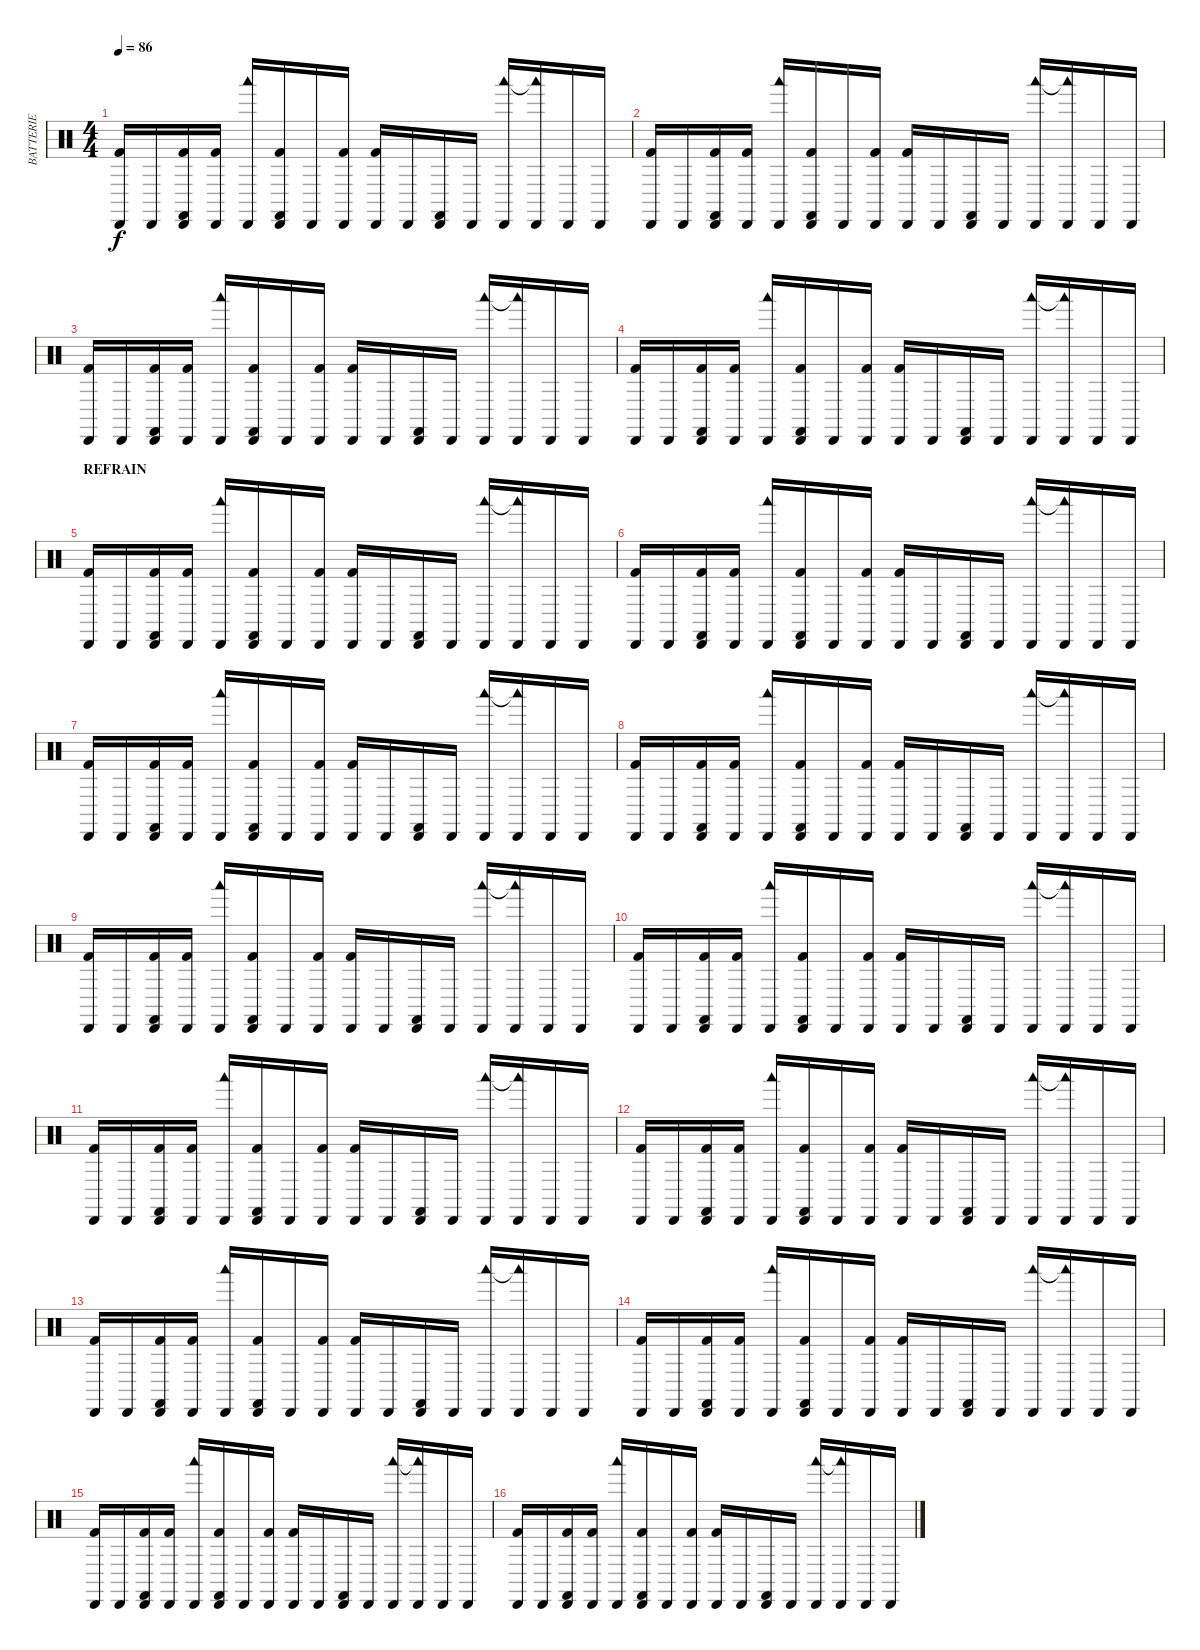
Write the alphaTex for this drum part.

\track ("BATTERIE" "BATTERIE") {instrument percussion}
\staff {score}
\articulation defaults
\ts (4 4)
\tempo 86
\clef neutral
\ks c
("Cabasa (hit)" "Kick (hit) 2").16{dy f} "Cabasa (hit)".16 ("Cabasa (hit)" "Castanets (hit)" "Kick (hit) 2").16 ("Cabasa (hit)" "Kick (hit) 2").16 ("Cabasa (hit)" "Woodblock low (hit)").16 ("Cabasa (hit)" "Castanets (hit)" "Kick (hit) 2").16 "Cabasa (hit)".16 ("Cabasa (hit)" "Kick (hit) 2").16 ("Cabasa (hit)" "Kick (hit) 2").16 "Cabasa (hit)".16 ("Cabasa (hit)" "Castanets (hit)").16 "Cabasa (hit)".16 ("Cabasa (hit)" "Woodblock low (hit)").16 ("Cabasa (hit)" "Woodblock low (hit)"{t}).16 "Cabasa (hit)".16 "Cabasa (hit)".16 |
("Cabasa (hit)" "Kick (hit) 2").16 "Cabasa (hit)".16 ("Cabasa (hit)" "Castanets (hit)" "Kick (hit) 2").16 ("Cabasa (hit)" "Kick (hit) 2").16 ("Cabasa (hit)" "Woodblock low (hit)").16 ("Cabasa (hit)" "Castanets (hit)" "Kick (hit) 2").16 "Cabasa (hit)".16 ("Cabasa (hit)" "Kick (hit) 2").16 ("Cabasa (hit)" "Kick (hit) 2").16 "Cabasa (hit)".16 ("Cabasa (hit)" "Castanets (hit)").16 "Cabasa (hit)".16 ("Cabasa (hit)" "Woodblock low (hit)").16 ("Cabasa (hit)" "Woodblock low (hit)"{t}).16 "Cabasa (hit)".16 "Cabasa (hit)".16 |
("Cabasa (hit)" "Kick (hit) 2").16 "Cabasa (hit)".16 ("Cabasa (hit)" "Castanets (hit)" "Kick (hit) 2").16 ("Cabasa (hit)" "Kick (hit) 2").16 ("Cabasa (hit)" "Woodblock low (hit)").16 ("Cabasa (hit)" "Castanets (hit)" "Kick (hit) 2").16 "Cabasa (hit)".16 ("Cabasa (hit)" "Kick (hit) 2").16 ("Cabasa (hit)" "Kick (hit) 2").16 "Cabasa (hit)".16 ("Cabasa (hit)" "Castanets (hit)").16 "Cabasa (hit)".16 ("Cabasa (hit)" "Woodblock low (hit)").16 ("Cabasa (hit)" "Woodblock low (hit)"{t}).16 "Cabasa (hit)".16 "Cabasa (hit)".16 |
("Cabasa (hit)" "Kick (hit) 2").16 "Cabasa (hit)".16 ("Cabasa (hit)" "Castanets (hit)" "Kick (hit) 2").16 ("Cabasa (hit)" "Kick (hit) 2").16 ("Cabasa (hit)" "Woodblock low (hit)").16 ("Cabasa (hit)" "Castanets (hit)" "Kick (hit) 2").16 "Cabasa (hit)".16 ("Cabasa (hit)" "Kick (hit) 2").16 ("Cabasa (hit)" "Kick (hit) 2").16 "Cabasa (hit)".16 ("Cabasa (hit)" "Castanets (hit)").16 "Cabasa (hit)".16 ("Cabasa (hit)" "Woodblock low (hit)").16 ("Cabasa (hit)" "Woodblock low (hit)"{t}).16 "Cabasa (hit)".16 "Cabasa (hit)".16 |
\section ("" "REFRAIN")
("Cabasa (hit)" "Kick (hit) 2").16 "Cabasa (hit)".16 ("Cabasa (hit)" "Castanets (hit)" "Kick (hit) 2").16 ("Cabasa (hit)" "Kick (hit) 2").16 ("Cabasa (hit)" "Woodblock low (hit)").16 ("Cabasa (hit)" "Castanets (hit)" "Kick (hit) 2").16 "Cabasa (hit)".16 ("Cabasa (hit)" "Kick (hit) 2").16 ("Cabasa (hit)" "Kick (hit) 2").16 "Cabasa (hit)".16 ("Cabasa (hit)" "Castanets (hit)").16 "Cabasa (hit)".16 ("Cabasa (hit)" "Woodblock low (hit)").16 ("Cabasa (hit)" "Woodblock low (hit)"{t}).16 "Cabasa (hit)".16 "Cabasa (hit)".16 |
("Cabasa (hit)" "Kick (hit) 2").16 "Cabasa (hit)".16 ("Cabasa (hit)" "Castanets (hit)" "Kick (hit) 2").16 ("Cabasa (hit)" "Kick (hit) 2").16 ("Cabasa (hit)" "Woodblock low (hit)").16 ("Cabasa (hit)" "Castanets (hit)" "Kick (hit) 2").16 "Cabasa (hit)".16 ("Cabasa (hit)" "Kick (hit) 2").16 ("Cabasa (hit)" "Kick (hit) 2").16 "Cabasa (hit)".16 ("Cabasa (hit)" "Castanets (hit)").16 "Cabasa (hit)".16 ("Cabasa (hit)" "Woodblock low (hit)").16 ("Cabasa (hit)" "Woodblock low (hit)"{t}).16 "Cabasa (hit)".16 "Cabasa (hit)".16 |
("Cabasa (hit)" "Kick (hit) 2").16 "Cabasa (hit)".16 ("Cabasa (hit)" "Castanets (hit)" "Kick (hit) 2").16 ("Cabasa (hit)" "Kick (hit) 2").16 ("Cabasa (hit)" "Woodblock low (hit)").16 ("Cabasa (hit)" "Castanets (hit)" "Kick (hit) 2").16 "Cabasa (hit)".16 ("Cabasa (hit)" "Kick (hit) 2").16 ("Cabasa (hit)" "Kick (hit) 2").16 "Cabasa (hit)".16 ("Cabasa (hit)" "Castanets (hit)").16 "Cabasa (hit)".16 ("Cabasa (hit)" "Woodblock low (hit)").16 ("Cabasa (hit)" "Woodblock low (hit)"{t}).16 "Cabasa (hit)".16 "Cabasa (hit)".16 |
("Cabasa (hit)" "Kick (hit) 2").16 "Cabasa (hit)".16 ("Cabasa (hit)" "Castanets (hit)" "Kick (hit) 2").16 ("Cabasa (hit)" "Kick (hit) 2").16 ("Cabasa (hit)" "Woodblock low (hit)").16 ("Cabasa (hit)" "Castanets (hit)" "Kick (hit) 2").16 "Cabasa (hit)".16 ("Cabasa (hit)" "Kick (hit) 2").16 ("Cabasa (hit)" "Kick (hit) 2").16 "Cabasa (hit)".16 ("Cabasa (hit)" "Castanets (hit)").16 "Cabasa (hit)".16 ("Cabasa (hit)" "Woodblock low (hit)").16 ("Cabasa (hit)" "Woodblock low (hit)"{t}).16 "Cabasa (hit)".16 "Cabasa (hit)".16 |
("Cabasa (hit)" "Kick (hit) 2").16 "Cabasa (hit)".16 ("Cabasa (hit)" "Castanets (hit)" "Kick (hit) 2").16 ("Cabasa (hit)" "Kick (hit) 2").16 ("Cabasa (hit)" "Woodblock low (hit)").16 ("Cabasa (hit)" "Castanets (hit)" "Kick (hit) 2").16 "Cabasa (hit)".16 ("Cabasa (hit)" "Kick (hit) 2").16 ("Cabasa (hit)" "Kick (hit) 2").16 "Cabasa (hit)".16 ("Cabasa (hit)" "Castanets (hit)").16 "Cabasa (hit)".16 ("Cabasa (hit)" "Woodblock low (hit)").16 ("Cabasa (hit)" "Woodblock low (hit)"{t}).16 "Cabasa (hit)".16 "Cabasa (hit)".16 |
("Cabasa (hit)" "Kick (hit) 2").16 "Cabasa (hit)".16 ("Cabasa (hit)" "Castanets (hit)" "Kick (hit) 2").16 ("Cabasa (hit)" "Kick (hit) 2").16 ("Cabasa (hit)" "Woodblock low (hit)").16 ("Cabasa (hit)" "Castanets (hit)" "Kick (hit) 2").16 "Cabasa (hit)".16 ("Cabasa (hit)" "Kick (hit) 2").16 ("Cabasa (hit)" "Kick (hit) 2").16 "Cabasa (hit)".16 ("Cabasa (hit)" "Castanets (hit)").16 "Cabasa (hit)".16 ("Cabasa (hit)" "Woodblock low (hit)").16 ("Cabasa (hit)" "Woodblock low (hit)"{t}).16 "Cabasa (hit)".16 "Cabasa (hit)".16 |
("Cabasa (hit)" "Kick (hit) 2").16 "Cabasa (hit)".16 ("Cabasa (hit)" "Castanets (hit)" "Kick (hit) 2").16 ("Cabasa (hit)" "Kick (hit) 2").16 ("Cabasa (hit)" "Woodblock low (hit)").16 ("Cabasa (hit)" "Castanets (hit)" "Kick (hit) 2").16 "Cabasa (hit)".16 ("Cabasa (hit)" "Kick (hit) 2").16 ("Cabasa (hit)" "Kick (hit) 2").16 "Cabasa (hit)".16 ("Cabasa (hit)" "Castanets (hit)").16 "Cabasa (hit)".16 ("Cabasa (hit)" "Woodblock low (hit)").16 ("Cabasa (hit)" "Woodblock low (hit)"{t}).16 "Cabasa (hit)".16 "Cabasa (hit)".16 |
("Cabasa (hit)" "Kick (hit) 2").16 "Cabasa (hit)".16 ("Cabasa (hit)" "Castanets (hit)" "Kick (hit) 2").16 ("Cabasa (hit)" "Kick (hit) 2").16 ("Cabasa (hit)" "Woodblock low (hit)").16 ("Cabasa (hit)" "Castanets (hit)" "Kick (hit) 2").16 "Cabasa (hit)".16 ("Cabasa (hit)" "Kick (hit) 2").16 ("Cabasa (hit)" "Kick (hit) 2").16 "Cabasa (hit)".16 ("Cabasa (hit)" "Castanets (hit)").16 "Cabasa (hit)".16 ("Cabasa (hit)" "Woodblock low (hit)").16 ("Cabasa (hit)" "Woodblock low (hit)"{t}).16 "Cabasa (hit)".16 "Cabasa (hit)".16 |
("Cabasa (hit)" "Kick (hit) 2").16 "Cabasa (hit)".16 ("Cabasa (hit)" "Castanets (hit)" "Kick (hit) 2").16 ("Cabasa (hit)" "Kick (hit) 2").16 ("Cabasa (hit)" "Woodblock low (hit)").16 ("Cabasa (hit)" "Castanets (hit)" "Kick (hit) 2").16 "Cabasa (hit)".16 ("Cabasa (hit)" "Kick (hit) 2").16 ("Cabasa (hit)" "Kick (hit) 2").16 "Cabasa (hit)".16 ("Cabasa (hit)" "Castanets (hit)").16 "Cabasa (hit)".16 ("Cabasa (hit)" "Woodblock low (hit)").16 ("Cabasa (hit)" "Woodblock low (hit)"{t}).16 "Cabasa (hit)".16 "Cabasa (hit)".16 |
("Cabasa (hit)" "Kick (hit) 2").16 "Cabasa (hit)".16 ("Cabasa (hit)" "Castanets (hit)" "Kick (hit) 2").16 ("Cabasa (hit)" "Kick (hit) 2").16 ("Cabasa (hit)" "Woodblock low (hit)").16 ("Cabasa (hit)" "Castanets (hit)" "Kick (hit) 2").16 "Cabasa (hit)".16 ("Cabasa (hit)" "Kick (hit) 2").16 ("Cabasa (hit)" "Kick (hit) 2").16 "Cabasa (hit)".16 ("Cabasa (hit)" "Castanets (hit)").16 "Cabasa (hit)".16 ("Cabasa (hit)" "Woodblock low (hit)").16 ("Cabasa (hit)" "Woodblock low (hit)"{t}).16 "Cabasa (hit)".16 "Cabasa (hit)".16 |
("Cabasa (hit)" "Kick (hit) 2").16 "Cabasa (hit)".16 ("Cabasa (hit)" "Castanets (hit)" "Kick (hit) 2").16 ("Cabasa (hit)" "Kick (hit) 2").16 ("Cabasa (hit)" "Woodblock low (hit)").16 ("Cabasa (hit)" "Castanets (hit)" "Kick (hit) 2").16 "Cabasa (hit)".16 ("Cabasa (hit)" "Kick (hit) 2").16 ("Cabasa (hit)" "Kick (hit) 2").16 "Cabasa (hit)".16 ("Cabasa (hit)" "Castanets (hit)").16 "Cabasa (hit)".16 ("Cabasa (hit)" "Woodblock low (hit)").16 ("Cabasa (hit)" "Woodblock low (hit)"{t}).16 "Cabasa (hit)".16 "Cabasa (hit)".16 |
("Cabasa (hit)" "Kick (hit) 2").16 "Cabasa (hit)".16 ("Cabasa (hit)" "Castanets (hit)" "Kick (hit) 2").16 ("Cabasa (hit)" "Kick (hit) 2").16 ("Cabasa (hit)" "Woodblock low (hit)").16 ("Cabasa (hit)" "Castanets (hit)" "Kick (hit) 2").16 "Cabasa (hit)".16 ("Cabasa (hit)" "Kick (hit) 2").16 ("Cabasa (hit)" "Kick (hit) 2").16 "Cabasa (hit)".16 ("Cabasa (hit)" "Castanets (hit)").16 "Cabasa (hit)".16 ("Cabasa (hit)" "Woodblock low (hit)").16 ("Cabasa (hit)" "Woodblock low (hit)"{t}).16 "Cabasa (hit)".16 "Cabasa (hit)".16
